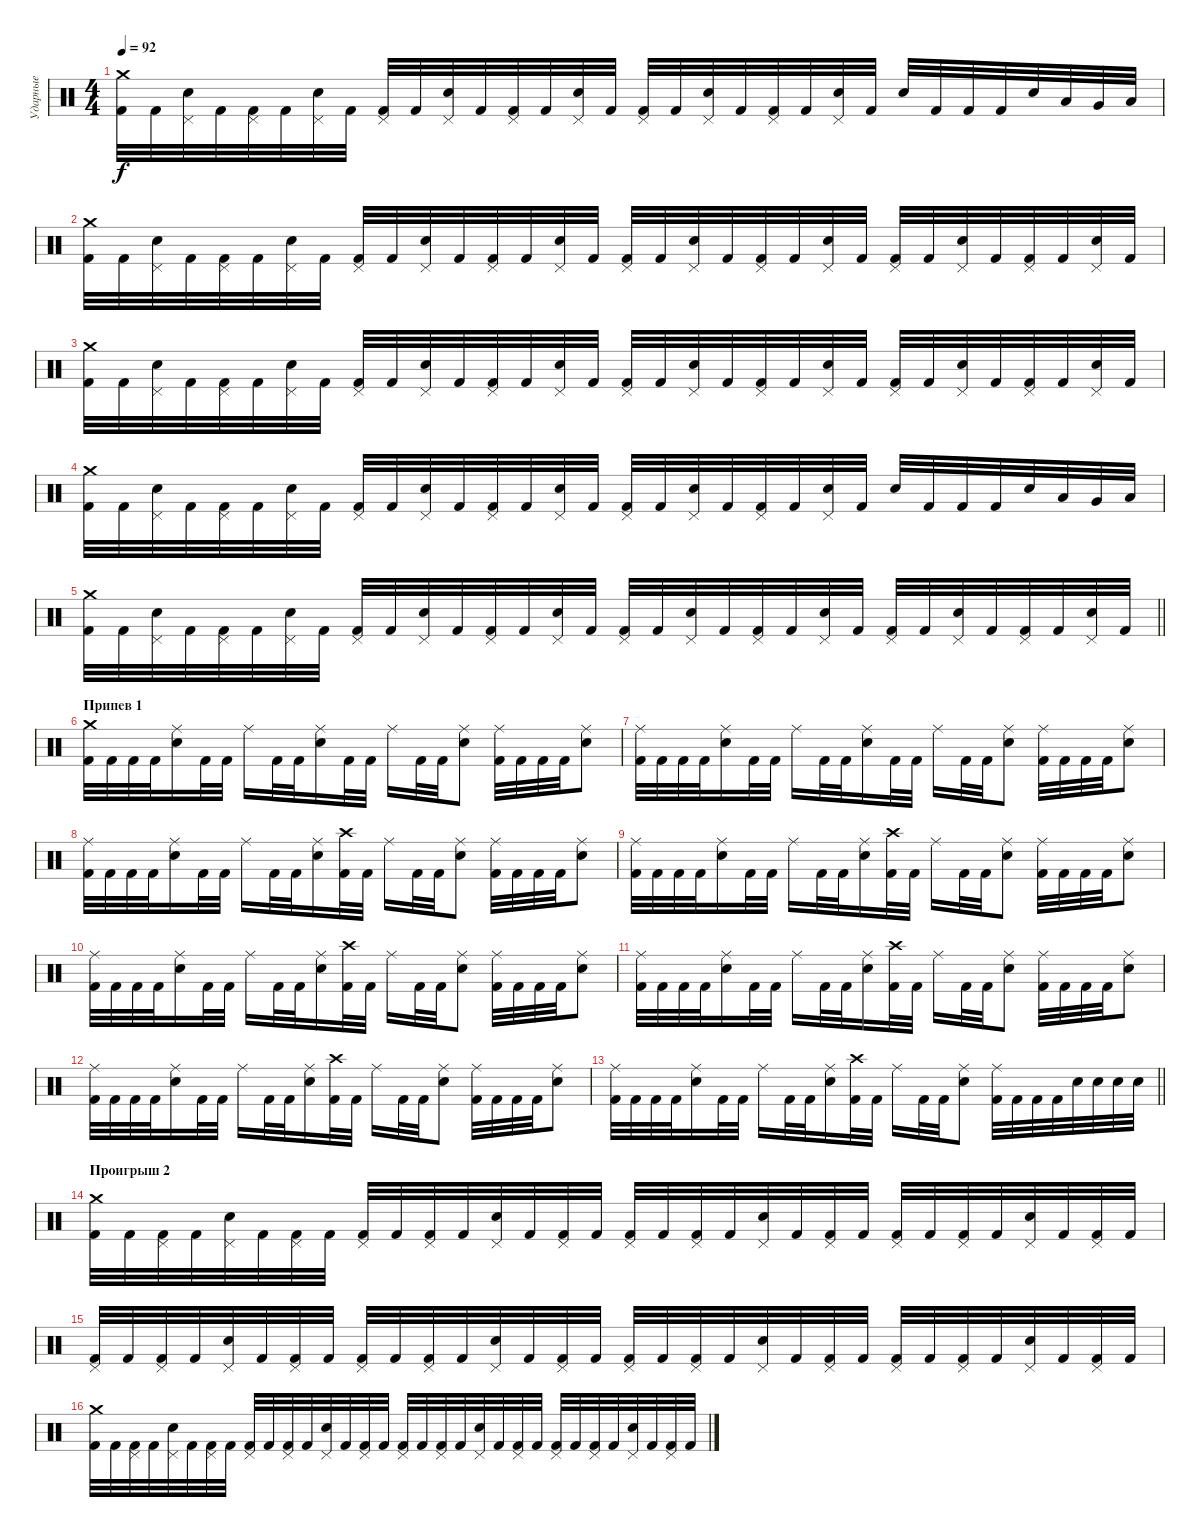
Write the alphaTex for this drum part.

\track ("Ударные" "Ударные") {instrument percussion}
\staff {score}
\articulation defaults
\ts (4 4)
\tempo 92
\clef neutral
\ks c
("Crash medium (hit)" "Kick (hit) 2").32{dy f} "Kick (hit) 2".32 ("Pedal Hi-Hat (hit)" "Electric Snare (hit)").32 "Kick (hit) 2".32 ("Pedal Hi-Hat (hit)" "Kick (hit) 2").32 "Kick (hit) 2".32 ("Pedal Hi-Hat (hit)" "Electric Snare (hit)").32 "Kick (hit) 2".32 ("Kick (hit) 2" "Pedal Hi-Hat (hit)").32 "Kick (hit) 2".32 ("Electric Snare (hit)" "Pedal Hi-Hat (hit)").32 "Kick (hit) 2".32 ("Kick (hit) 2" "Pedal Hi-Hat (hit)").32 "Kick (hit) 2".32 ("Electric Snare (hit)" "Pedal Hi-Hat (hit)").32 "Kick (hit) 2".32 ("Kick (hit) 2" "Pedal Hi-Hat (hit)").32 "Kick (hit) 2".32 ("Electric Snare (hit)" "Pedal Hi-Hat (hit)").32 "Kick (hit) 2".32 ("Kick (hit) 2" "Pedal Hi-Hat (hit)").32 "Kick (hit) 2".32 ("Electric Snare (hit)" "Pedal Hi-Hat (hit)").32 "Kick (hit) 2".32 "Electric Snare (hit)".32 "Kick (hit) 2".32 "Kick (hit) 2".32 "Kick (hit) 2".32 "Electric Snare (hit)".32 "Low Floor Tom (hit)".32 "Very Low Tom (hit)".32 "Low Tom (hit)".32 |
("Crash medium (hit)" "Kick (hit) 2").32 "Kick (hit) 2".32 ("Pedal Hi-Hat (hit)" "Electric Snare (hit)").32 "Kick (hit) 2".32 ("Pedal Hi-Hat (hit)" "Kick (hit) 2").32 "Kick (hit) 2".32 ("Pedal Hi-Hat (hit)" "Electric Snare (hit)").32 "Kick (hit) 2".32 ("Kick (hit) 2" "Pedal Hi-Hat (hit)").32 "Kick (hit) 2".32 ("Electric Snare (hit)" "Pedal Hi-Hat (hit)").32 "Kick (hit) 2".32 ("Kick (hit) 2" "Pedal Hi-Hat (hit)").32 "Kick (hit) 2".32 ("Electric Snare (hit)" "Pedal Hi-Hat (hit)").32 "Kick (hit) 2".32 ("Kick (hit) 2" "Pedal Hi-Hat (hit)").32 "Kick (hit) 2".32 ("Electric Snare (hit)" "Pedal Hi-Hat (hit)").32 "Kick (hit) 2".32 ("Kick (hit) 2" "Pedal Hi-Hat (hit)").32 "Kick (hit) 2".32 ("Electric Snare (hit)" "Pedal Hi-Hat (hit)").32 "Kick (hit) 2".32 ("Kick (hit) 2" "Pedal Hi-Hat (hit)").32 "Kick (hit) 2".32 ("Electric Snare (hit)" "Pedal Hi-Hat (hit)").32 "Kick (hit) 2".32 ("Kick (hit) 2" "Pedal Hi-Hat (hit)").32 "Kick (hit) 2".32 ("Electric Snare (hit)" "Pedal Hi-Hat (hit)").32 "Kick (hit) 2".32 |
("Crash medium (hit)" "Kick (hit) 2").32 "Kick (hit) 2".32 ("Pedal Hi-Hat (hit)" "Electric Snare (hit)").32 "Kick (hit) 2".32 ("Pedal Hi-Hat (hit)" "Kick (hit) 2").32 "Kick (hit) 2".32 ("Pedal Hi-Hat (hit)" "Electric Snare (hit)").32 "Kick (hit) 2".32 ("Kick (hit) 2" "Pedal Hi-Hat (hit)").32 "Kick (hit) 2".32 ("Electric Snare (hit)" "Pedal Hi-Hat (hit)").32 "Kick (hit) 2".32 ("Kick (hit) 2" "Pedal Hi-Hat (hit)").32 "Kick (hit) 2".32 ("Electric Snare (hit)" "Pedal Hi-Hat (hit)").32 "Kick (hit) 2".32 ("Kick (hit) 2" "Pedal Hi-Hat (hit)").32 "Kick (hit) 2".32 ("Electric Snare (hit)" "Pedal Hi-Hat (hit)").32 "Kick (hit) 2".32 ("Kick (hit) 2" "Pedal Hi-Hat (hit)").32 "Kick (hit) 2".32 ("Electric Snare (hit)" "Pedal Hi-Hat (hit)").32 "Kick (hit) 2".32 ("Kick (hit) 2" "Pedal Hi-Hat (hit)").32 "Kick (hit) 2".32 ("Electric Snare (hit)" "Pedal Hi-Hat (hit)").32 "Kick (hit) 2".32 ("Kick (hit) 2" "Pedal Hi-Hat (hit)").32 "Kick (hit) 2".32 ("Electric Snare (hit)" "Pedal Hi-Hat (hit)").32 "Kick (hit) 2".32 |
("Crash medium (hit)" "Kick (hit) 2").32 "Kick (hit) 2".32 ("Pedal Hi-Hat (hit)" "Electric Snare (hit)").32 "Kick (hit) 2".32 ("Pedal Hi-Hat (hit)" "Kick (hit) 2").32 "Kick (hit) 2".32 ("Pedal Hi-Hat (hit)" "Electric Snare (hit)").32 "Kick (hit) 2".32 ("Kick (hit) 2" "Pedal Hi-Hat (hit)").32 "Kick (hit) 2".32 ("Electric Snare (hit)" "Pedal Hi-Hat (hit)").32 "Kick (hit) 2".32 ("Kick (hit) 2" "Pedal Hi-Hat (hit)").32 "Kick (hit) 2".32 ("Electric Snare (hit)" "Pedal Hi-Hat (hit)").32 "Kick (hit) 2".32 ("Kick (hit) 2" "Pedal Hi-Hat (hit)").32 "Kick (hit) 2".32 ("Electric Snare (hit)" "Pedal Hi-Hat (hit)").32 "Kick (hit) 2".32 ("Kick (hit) 2" "Pedal Hi-Hat (hit)").32 "Kick (hit) 2".32 ("Electric Snare (hit)" "Pedal Hi-Hat (hit)").32 "Kick (hit) 2".32 "Electric Snare (hit)".32 "Kick (hit) 2".32 "Kick (hit) 2".32 "Kick (hit) 2".32 "Electric Snare (hit)".32 "Low Floor Tom (hit)".32 "Very Low Tom (hit)".32 "Low Tom (hit)".32 |
\barLineRight lightlight
("Crash medium (hit)" "Kick (hit) 2").32 "Kick (hit) 2".32 ("Pedal Hi-Hat (hit)" "Electric Snare (hit)").32 "Kick (hit) 2".32 ("Pedal Hi-Hat (hit)" "Kick (hit) 2").32 "Kick (hit) 2".32 ("Pedal Hi-Hat (hit)" "Electric Snare (hit)").32 "Kick (hit) 2".32 ("Kick (hit) 2" "Pedal Hi-Hat (hit)").32 "Kick (hit) 2".32 ("Electric Snare (hit)" "Pedal Hi-Hat (hit)").32 "Kick (hit) 2".32 ("Kick (hit) 2" "Pedal Hi-Hat (hit)").32 "Kick (hit) 2".32 ("Electric Snare (hit)" "Pedal Hi-Hat (hit)").32 "Kick (hit) 2".32 ("Kick (hit) 2" "Pedal Hi-Hat (hit)").32 "Kick (hit) 2".32 ("Electric Snare (hit)" "Pedal Hi-Hat (hit)").32 "Kick (hit) 2".32 ("Kick (hit) 2" "Pedal Hi-Hat (hit)").32 "Kick (hit) 2".32 ("Electric Snare (hit)" "Pedal Hi-Hat (hit)").32 "Kick (hit) 2".32 ("Kick (hit) 2" "Pedal Hi-Hat (hit)").32 "Kick (hit) 2".32 ("Electric Snare (hit)" "Pedal Hi-Hat (hit)").32 "Kick (hit) 2".32 ("Kick (hit) 2" "Pedal Hi-Hat (hit)").32 "Kick (hit) 2".32 ("Electric Snare (hit)" "Pedal Hi-Hat (hit)").32 "Kick (hit) 2".32 |
\section ("" "Припев 1")
("Crash medium (hit)" "Kick (hit) 2").32 "Kick (hit) 2".32 "Kick (hit) 2".32 "Kick (hit) 2".32 ("Ride (middle)" "Electric Snare (hit)").16 "Kick (hit) 2".32 "Kick (hit) 2".32 "Ride (middle)".16 "Kick (hit) 2".32 "Kick (hit) 2".32 ("Electric Snare (hit)" "Ride (middle)").16 "Kick (hit) 2".32 "Kick (hit) 2".32 "Ride (middle)".16 "Kick (hit) 2".32 "Kick (hit) 2".32 ("Electric Snare (hit)" "Ride (middle)").8 ("Kick (hit) 2" "Ride (middle)").32 "Kick (hit) 2".32 "Kick (hit) 2".32 "Kick (hit) 2".32 ("Electric Snare (hit)" "Ride (middle)").8 |
("Ride (middle)" "Kick (hit) 2").32 "Kick (hit) 2".32 "Kick (hit) 2".32 "Kick (hit) 2".32 ("Ride (middle)" "Electric Snare (hit)").16 "Kick (hit) 2".32 "Kick (hit) 2".32 "Ride (middle)".16 "Kick (hit) 2".32 "Kick (hit) 2".32 ("Electric Snare (hit)" "Ride (middle)").16 "Kick (hit) 2".32 "Kick (hit) 2".32 "Ride (middle)".16 "Kick (hit) 2".32 "Kick (hit) 2".32 ("Electric Snare (hit)" "Ride (middle)").8 ("Kick (hit) 2" "Ride (middle)").32 "Kick (hit) 2".32 "Kick (hit) 2".32 "Kick (hit) 2".32 ("Electric Snare (hit)" "Ride (middle)").8 |
("Ride (middle)" "Kick (hit) 2").32 "Kick (hit) 2".32 "Kick (hit) 2".32 "Kick (hit) 2".32 ("Ride (middle)" "Electric Snare (hit)").16 "Kick (hit) 2".32 "Kick (hit) 2".32 "Ride (middle)".16 "Kick (hit) 2".32 "Kick (hit) 2".32 ("Electric Snare (hit)" "Ride (middle)").16 ("Crash high (hit)" "Kick (hit) 2").32 "Kick (hit) 2".32 "Ride (middle)".16 "Kick (hit) 2".32 "Kick (hit) 2".32 ("Electric Snare (hit)" "Ride (middle)").8 ("Kick (hit) 2" "Ride (middle)").32 "Kick (hit) 2".32 "Kick (hit) 2".32 "Kick (hit) 2".32 ("Electric Snare (hit)" "Ride (middle)").8 |
("Ride (middle)" "Kick (hit) 2").32 "Kick (hit) 2".32 "Kick (hit) 2".32 "Kick (hit) 2".32 ("Ride (middle)" "Electric Snare (hit)").16 "Kick (hit) 2".32 "Kick (hit) 2".32 "Ride (middle)".16 "Kick (hit) 2".32 "Kick (hit) 2".32 ("Electric Snare (hit)" "Ride (middle)").16 ("Crash high (hit)" "Kick (hit) 2").32 "Kick (hit) 2".32 "Ride (middle)".16 "Kick (hit) 2".32 "Kick (hit) 2".32 ("Electric Snare (hit)" "Ride (middle)").8 ("Kick (hit) 2" "Ride (middle)").32 "Kick (hit) 2".32 "Kick (hit) 2".32 "Kick (hit) 2".32 ("Electric Snare (hit)" "Ride (middle)").8 |
("Ride (middle)" "Kick (hit) 2").32 "Kick (hit) 2".32 "Kick (hit) 2".32 "Kick (hit) 2".32 ("Ride (middle)" "Electric Snare (hit)").16 "Kick (hit) 2".32 "Kick (hit) 2".32 "Ride (middle)".16 "Kick (hit) 2".32 "Kick (hit) 2".32 ("Electric Snare (hit)" "Ride (middle)").16 ("Crash high (hit)" "Kick (hit) 2").32 "Kick (hit) 2".32 "Ride (middle)".16 "Kick (hit) 2".32 "Kick (hit) 2".32 ("Electric Snare (hit)" "Ride (middle)").8 ("Kick (hit) 2" "Ride (middle)").32 "Kick (hit) 2".32 "Kick (hit) 2".32 "Kick (hit) 2".32 ("Electric Snare (hit)" "Ride (middle)").8 |
("Ride (middle)" "Kick (hit) 2").32 "Kick (hit) 2".32 "Kick (hit) 2".32 "Kick (hit) 2".32 ("Ride (middle)" "Electric Snare (hit)").16 "Kick (hit) 2".32 "Kick (hit) 2".32 "Ride (middle)".16 "Kick (hit) 2".32 "Kick (hit) 2".32 ("Electric Snare (hit)" "Ride (middle)").16 ("Crash high (hit)" "Kick (hit) 2").32 "Kick (hit) 2".32 "Ride (middle)".16 "Kick (hit) 2".32 "Kick (hit) 2".32 ("Electric Snare (hit)" "Ride (middle)").8 ("Kick (hit) 2" "Ride (middle)").32 "Kick (hit) 2".32 "Kick (hit) 2".32 "Kick (hit) 2".32 ("Electric Snare (hit)" "Ride (middle)").8 |
("Ride (middle)" "Kick (hit) 2").32 "Kick (hit) 2".32 "Kick (hit) 2".32 "Kick (hit) 2".32 ("Ride (middle)" "Electric Snare (hit)").16 "Kick (hit) 2".32 "Kick (hit) 2".32 "Ride (middle)".16 "Kick (hit) 2".32 "Kick (hit) 2".32 ("Electric Snare (hit)" "Ride (middle)").16 ("Crash high (hit)" "Kick (hit) 2").32 "Kick (hit) 2".32 "Ride (middle)".16 "Kick (hit) 2".32 "Kick (hit) 2".32 ("Electric Snare (hit)" "Ride (middle)").8 ("Kick (hit) 2" "Ride (middle)").32 "Kick (hit) 2".32 "Kick (hit) 2".32 "Kick (hit) 2".32 ("Electric Snare (hit)" "Ride (middle)").8 |
\barLineRight lightlight
("Ride (middle)" "Kick (hit) 2").32 "Kick (hit) 2".32 "Kick (hit) 2".32 "Kick (hit) 2".32 ("Ride (middle)" "Electric Snare (hit)").16 "Kick (hit) 2".32 "Kick (hit) 2".32 "Ride (middle)".16 "Kick (hit) 2".32 "Kick (hit) 2".32 ("Electric Snare (hit)" "Ride (middle)").16 ("Crash high (hit)" "Kick (hit) 2").32 "Kick (hit) 2".32 "Ride (middle)".16 "Kick (hit) 2".32 "Kick (hit) 2".32 ("Electric Snare (hit)" "Ride (middle)").8 ("Kick (hit) 2" "Ride (middle)").32 "Kick (hit) 2".32 "Kick (hit) 2".32 "Kick (hit) 2".32 "Electric Snare (hit)".32 "Electric Snare (hit)".32 "Electric Snare (hit)".32 "Electric Snare (hit)".32 |
\section ("" "Проигрыш 2")
("Crash medium (hit)" "Kick (hit) 2").32 "Kick (hit) 2".32 ("Kick (hit) 2" "Pedal Hi-Hat (hit)").32 "Kick (hit) 2".32 ("Electric Snare (hit)" "Pedal Hi-Hat (hit)").32 "Kick (hit) 2".32 ("Kick (hit) 2" "Pedal Hi-Hat (hit)").32 "Kick (hit) 2".32 ("Kick (hit) 2" "Pedal Hi-Hat (hit)").32 "Kick (hit) 2".32 ("Kick (hit) 2" "Pedal Hi-Hat (hit)").32 "Kick (hit) 2".32 ("Electric Snare (hit)" "Pedal Hi-Hat (hit)").32 "Kick (hit) 2".32 ("Kick (hit) 2" "Pedal Hi-Hat (hit)").32 "Kick (hit) 2".32 ("Kick (hit) 2" "Pedal Hi-Hat (hit)").32 "Kick (hit) 2".32 ("Kick (hit) 2" "Pedal Hi-Hat (hit)").32 "Kick (hit) 2".32 ("Electric Snare (hit)" "Pedal Hi-Hat (hit)").32 "Kick (hit) 2".32 ("Kick (hit) 2" "Pedal Hi-Hat (hit)").32 "Kick (hit) 2".32 ("Kick (hit) 2" "Pedal Hi-Hat (hit)").32 "Kick (hit) 2".32 ("Kick (hit) 2" "Pedal Hi-Hat (hit)").32 "Kick (hit) 2".32 ("Electric Snare (hit)" "Pedal Hi-Hat (hit)").32 "Kick (hit) 2".32 ("Kick (hit) 2" "Pedal Hi-Hat (hit)").32 "Kick (hit) 2".32 |
("Kick (hit) 2" "Pedal Hi-Hat (hit)").32 "Kick (hit) 2".32 ("Kick (hit) 2" "Pedal Hi-Hat (hit)").32 "Kick (hit) 2".32 ("Electric Snare (hit)" "Pedal Hi-Hat (hit)").32 "Kick (hit) 2".32 ("Kick (hit) 2" "Pedal Hi-Hat (hit)").32 "Kick (hit) 2".32 ("Kick (hit) 2" "Pedal Hi-Hat (hit)").32 "Kick (hit) 2".32 ("Kick (hit) 2" "Pedal Hi-Hat (hit)").32 "Kick (hit) 2".32 ("Electric Snare (hit)" "Pedal Hi-Hat (hit)").32 "Kick (hit) 2".32 ("Kick (hit) 2" "Pedal Hi-Hat (hit)").32 "Kick (hit) 2".32 ("Kick (hit) 2" "Pedal Hi-Hat (hit)").32 "Kick (hit) 2".32 ("Kick (hit) 2" "Pedal Hi-Hat (hit)").32 "Kick (hit) 2".32 ("Electric Snare (hit)" "Pedal Hi-Hat (hit)").32 "Kick (hit) 2".32 ("Kick (hit) 2" "Pedal Hi-Hat (hit)").32 "Kick (hit) 2".32 ("Kick (hit) 2" "Pedal Hi-Hat (hit)").32 "Kick (hit) 2".32 ("Kick (hit) 2" "Pedal Hi-Hat (hit)").32 "Kick (hit) 2".32 ("Electric Snare (hit)" "Pedal Hi-Hat (hit)").32 "Kick (hit) 2".32 ("Kick (hit) 2" "Pedal Hi-Hat (hit)").32 "Kick (hit) 2".32 |
("Crash medium (hit)" "Kick (hit) 2").32 "Kick (hit) 2".32 ("Kick (hit) 2" "Pedal Hi-Hat (hit)").32 "Kick (hit) 2".32 ("Electric Snare (hit)" "Pedal Hi-Hat (hit)").32 "Kick (hit) 2".32 ("Kick (hit) 2" "Pedal Hi-Hat (hit)").32 "Kick (hit) 2".32 ("Kick (hit) 2" "Pedal Hi-Hat (hit)").32 "Kick (hit) 2".32 ("Kick (hit) 2" "Pedal Hi-Hat (hit)").32 "Kick (hit) 2".32 ("Electric Snare (hit)" "Pedal Hi-Hat (hit)").32 "Kick (hit) 2".32 ("Kick (hit) 2" "Pedal Hi-Hat (hit)").32 "Kick (hit) 2".32 ("Kick (hit) 2" "Pedal Hi-Hat (hit)").32 "Kick (hit) 2".32 ("Kick (hit) 2" "Pedal Hi-Hat (hit)").32 "Kick (hit) 2".32 ("Electric Snare (hit)" "Pedal Hi-Hat (hit)").32 "Kick (hit) 2".32 ("Kick (hit) 2" "Pedal Hi-Hat (hit)").32 "Kick (hit) 2".32 ("Kick (hit) 2" "Pedal Hi-Hat (hit)").32 "Kick (hit) 2".32 ("Kick (hit) 2" "Pedal Hi-Hat (hit)").32 "Kick (hit) 2".32 ("Electric Snare (hit)" "Pedal Hi-Hat (hit)").32 "Kick (hit) 2".32 ("Kick (hit) 2" "Pedal Hi-Hat (hit)").32 "Kick (hit) 2".32
